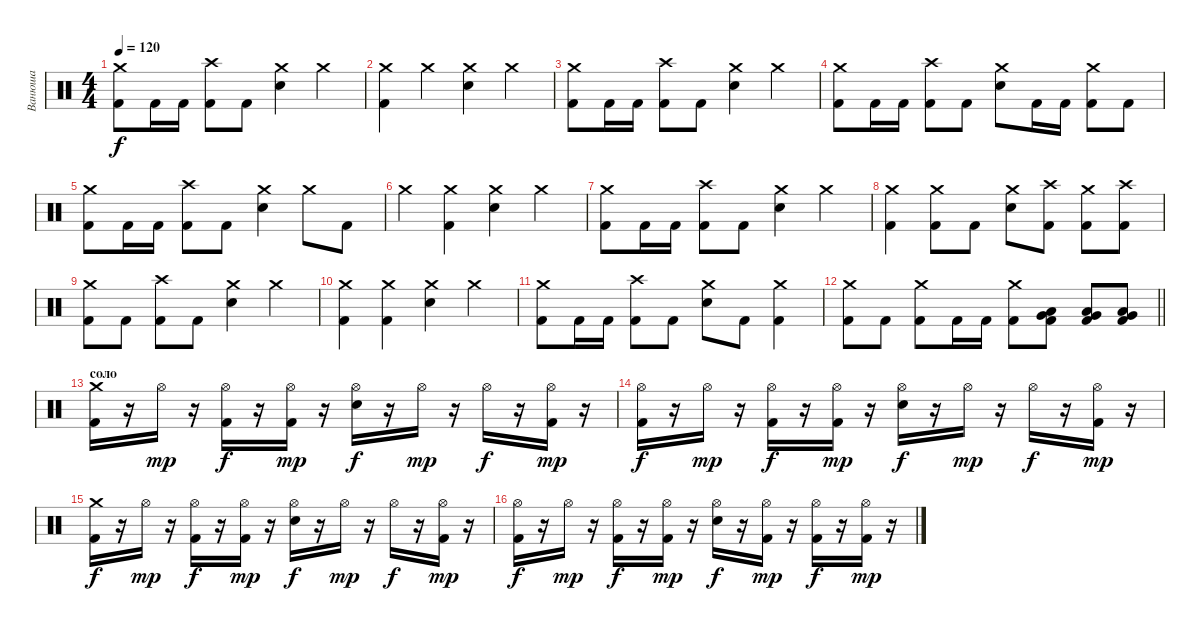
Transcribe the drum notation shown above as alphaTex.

\track ("Ванюша" "Ванюша") {instrument percussion}
\staff {score}
\articulation defaults
\ts (4 4)
\tempo 120
\clef neutral
\ks c
("Crash medium (hit)" "Kick (hit) 2").8{dy f} "Kick (hit) 2".16 "Kick (hit) 2".16 ("Crash high (hit)" "Kick (hit) 2").8 "Kick (hit) 2".8 ("Crash medium (hit)" "Snare (hit) 2").4 "Crash medium (hit)".4 |
("Crash medium (hit)" "Kick (hit) 2").4 "Crash medium (hit)".4 ("Crash medium (hit)" "Snare (hit) 2").4 "Crash medium (hit)".4 |
("Crash medium (hit)" "Kick (hit) 2").8 "Kick (hit) 2".16 "Kick (hit) 2".16 ("Crash high (hit)" "Kick (hit) 2").8 "Kick (hit) 2".8 ("Crash medium (hit)" "Snare (hit) 2").4 "Crash medium (hit)".4 |
("Crash medium (hit)" "Kick (hit) 2").8 "Kick (hit) 2".16 "Kick (hit) 2".16 ("Crash high (hit)" "Kick (hit) 2").8 "Kick (hit) 2".8 ("Crash medium (hit)" "Snare (hit) 2").8 "Kick (hit) 2".16 "Kick (hit) 2".16 ("Crash medium (hit)" "Kick (hit) 2").8 "Kick (hit) 2".8 |
("Crash medium (hit)" "Kick (hit) 2").8 "Kick (hit) 2".16 "Kick (hit) 2".16 ("Crash high (hit)" "Kick (hit) 2").8 "Kick (hit) 2".8 ("Crash medium (hit)" "Snare (hit) 2").4 "Crash medium (hit)".8 "Kick (hit) 2".8 |
"Crash medium (hit)".4 ("Crash medium (hit)" "Kick (hit) 2").4 ("Crash medium (hit)" "Snare (hit) 2").4 "Crash medium (hit)".4 |
("Crash medium (hit)" "Kick (hit) 2").8 "Kick (hit) 2".16 "Kick (hit) 2".16 ("Crash high (hit)" "Kick (hit) 2").8 "Kick (hit) 2".8 ("Crash medium (hit)" "Snare (hit) 2").4 "Crash medium (hit)".4 |
("Crash medium (hit)" "Kick (hit) 2").4 ("Crash medium (hit)" "Kick (hit) 2").8 "Kick (hit) 2".8 ("Crash medium (hit)" "Snare (hit) 2").8 ("Crash high (hit)" "Kick (hit) 2").8 ("Crash medium (hit)" "Kick (hit) 2").8 ("Crash high (hit)" "Kick (hit) 2").8 |
("Crash medium (hit)" "Kick (hit) 2").8 "Kick (hit) 2".8 ("Crash high (hit)" "Kick (hit) 2").8 "Kick (hit) 2".8 ("Crash medium (hit)" "Snare (hit) 2").4 "Crash medium (hit)".4 |
("Crash medium (hit)" "Kick (hit) 2").4 ("Crash medium (hit)" "Kick (hit) 2").4 ("Crash medium (hit)" "Snare (hit) 2").4 "Crash medium (hit)".4 |
("Crash medium (hit)" "Kick (hit) 2").8 "Kick (hit) 2".16 "Kick (hit) 2".16 ("Crash high (hit)" "Kick (hit) 2").8 "Kick (hit) 2".8 ("Crash medium (hit)" "Snare (hit) 2").8 "Kick (hit) 2".8 ("Crash medium (hit)" "Kick (hit) 2").4 |
\barLineRight lightlight
("Crash medium (hit)" "Kick (hit) 2").8 "Kick (hit) 2".8 ("Crash medium (hit)" "Kick (hit) 2").8 "Kick (hit) 2".16 "Kick (hit) 2".16 ("Crash medium (hit)" "Kick (hit) 2").8 ("Low Tom (hit)" "Very Low Tom (hit)" "Kick (hit) 2").8 ("Low Tom (hit)" "Very Low Tom (hit)" "Kick (hit) 2").8 ("Low Tom (hit)" "Very Low Tom (hit)" "Kick (hit) 2").8 |
\section ("" "соло")
("Crash medium (hit)" "Kick (hit) 2").16 r.16 "Hi-Hat (open)".16{dy mp} r.16 ("Hi-Hat (open)" "Kick (hit) 2").16{dy f} r.16 ("Hi-Hat (open)" "Kick (hit) 2").16{dy mp} r.16 ("Hi-Hat (open)" "Snare (hit) 2").16{dy f} r.16 "Hi-Hat (open)".16{dy mp} r.16 "Hi-Hat (open)".16{dy f} r.16 ("Hi-Hat (open)" "Kick (hit) 2").16{dy mp} r.16 |
("Hi-Hat (open)" "Kick (hit) 2").16{dy f} r.16 "Hi-Hat (open)".16{dy mp} r.16 ("Hi-Hat (open)" "Kick (hit) 2").16{dy f} r.16 ("Hi-Hat (open)" "Kick (hit) 2").16{dy mp} r.16 ("Hi-Hat (open)" "Snare (hit) 2").16{dy f} r.16 "Hi-Hat (open)".16{dy mp} r.16 "Hi-Hat (open)".16{dy f} r.16 ("Hi-Hat (open)" "Kick (hit) 2").16{dy mp} r.16 |
("Crash medium (hit)" "Kick (hit) 2").16{dy f} r.16 "Hi-Hat (open)".16{dy mp} r.16 ("Hi-Hat (open)" "Kick (hit) 2").16{dy f} r.16 ("Hi-Hat (open)" "Kick (hit) 2").16{dy mp} r.16 ("Hi-Hat (open)" "Snare (hit) 2").16{dy f} r.16 "Hi-Hat (open)".16{dy mp} r.16 "Hi-Hat (open)".16{dy f} r.16 ("Hi-Hat (open)" "Kick (hit) 2").16{dy mp} r.16 |
("Hi-Hat (open)" "Kick (hit) 2").16{dy f} r.16 "Hi-Hat (open)".16{dy mp} r.16 ("Hi-Hat (open)" "Kick (hit) 2").16{dy f} r.16 ("Hi-Hat (open)" "Kick (hit) 2").16{dy mp} r.16 ("Hi-Hat (open)" "Snare (hit) 2").16{dy f} r.16 ("Hi-Hat (open)" "Kick (hit) 2").16{dy mp} r.16 ("Hi-Hat (open)" "Kick (hit) 2").16{dy f} r.16 ("Hi-Hat (open)" "Kick (hit) 2").16{dy mp} r.16
